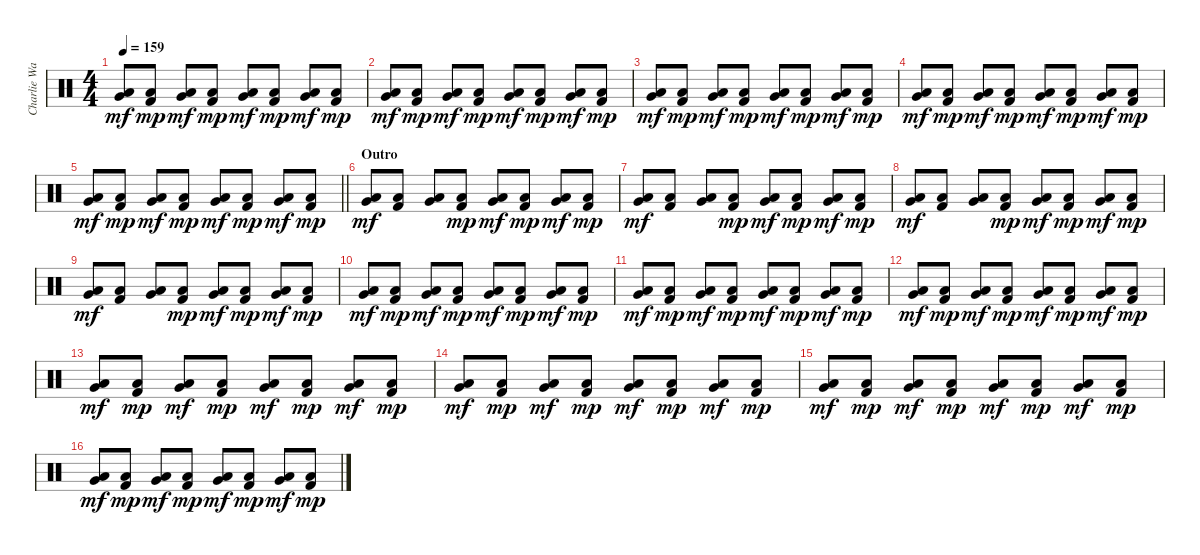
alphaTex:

\track ("Charlie Watts (Drums)" "Charlie Wa") {instrument percussion}
\staff {score}
\articulation defaults
\ts (4 4)
\tempo 159
\clef neutral
\ks c
("Very Low Tom (hit)" "Low Floor Tom (hit)").8{dy mf} ("Low Floor Tom (hit)" "Kick (hit) 2").8{dy mp} ("Very Low Tom (hit)" "Low Floor Tom (hit)").8{dy mf} ("Low Floor Tom (hit)" "Kick (hit) 2").8{dy mp} ("Very Low Tom (hit)" "Low Floor Tom (hit)").8{dy mf} ("Low Floor Tom (hit)" "Kick (hit) 2").8{dy mp} ("Very Low Tom (hit)" "Low Floor Tom (hit)").8{dy mf} ("Low Floor Tom (hit)" "Kick (hit) 2").8{dy mp} |
("Very Low Tom (hit)" "Low Floor Tom (hit)").8{dy mf} ("Low Floor Tom (hit)" "Kick (hit) 2").8{dy mp} ("Very Low Tom (hit)" "Low Floor Tom (hit)").8{dy mf} ("Low Floor Tom (hit)" "Kick (hit) 2").8{dy mp} ("Very Low Tom (hit)" "Low Floor Tom (hit)").8{dy mf} ("Low Floor Tom (hit)" "Kick (hit) 2").8{dy mp} ("Very Low Tom (hit)" "Low Floor Tom (hit)").8{dy mf} ("Low Floor Tom (hit)" "Kick (hit) 2").8{dy mp} |
("Very Low Tom (hit)" "Low Floor Tom (hit)").8{dy mf} ("Low Floor Tom (hit)" "Kick (hit) 2").8{dy mp} ("Very Low Tom (hit)" "Low Floor Tom (hit)").8{dy mf} ("Low Floor Tom (hit)" "Kick (hit) 2").8{dy mp} ("Very Low Tom (hit)" "Low Floor Tom (hit)").8{dy mf} ("Low Floor Tom (hit)" "Kick (hit) 2").8{dy mp} ("Very Low Tom (hit)" "Low Floor Tom (hit)").8{dy mf} ("Low Floor Tom (hit)" "Kick (hit) 2").8{dy mp} |
("Very Low Tom (hit)" "Low Floor Tom (hit)").8{dy mf} ("Low Floor Tom (hit)" "Kick (hit) 2").8{dy mp} ("Very Low Tom (hit)" "Low Floor Tom (hit)").8{dy mf} ("Low Floor Tom (hit)" "Kick (hit) 2").8{dy mp} ("Very Low Tom (hit)" "Low Floor Tom (hit)").8{dy mf} ("Low Floor Tom (hit)" "Kick (hit) 2").8{dy mp} ("Very Low Tom (hit)" "Low Floor Tom (hit)").8{dy mf} ("Low Floor Tom (hit)" "Kick (hit) 2").8{dy mp} |
\barLineRight lightlight
("Very Low Tom (hit)" "Low Floor Tom (hit)").8{dy mf} ("Low Floor Tom (hit)" "Kick (hit) 2").8{dy mp} ("Very Low Tom (hit)" "Low Floor Tom (hit)").8{dy mf} ("Low Floor Tom (hit)" "Kick (hit) 2").8{dy mp} ("Very Low Tom (hit)" "Low Floor Tom (hit)").8{dy mf} ("Low Floor Tom (hit)" "Kick (hit) 2").8{dy mp} ("Very Low Tom (hit)" "Low Floor Tom (hit)").8{dy mf} ("Low Floor Tom (hit)" "Kick (hit) 2").8{dy mp} |
\section ("" "Outro")
("Very Low Tom (hit)" "Low Floor Tom (hit)").8{dy mf} ("Low Floor Tom (hit)" "Kick (hit) 2").8 ("Very Low Tom (hit)" "Low Floor Tom (hit)").8 ("Low Floor Tom (hit)" "Kick (hit) 2").8{dy mp} ("Very Low Tom (hit)" "Low Floor Tom (hit)").8{dy mf} ("Low Floor Tom (hit)" "Kick (hit) 2").8{dy mp} ("Very Low Tom (hit)" "Low Floor Tom (hit)").8{dy mf} ("Low Floor Tom (hit)" "Kick (hit) 2").8{dy mp} |
("Very Low Tom (hit)" "Low Floor Tom (hit)").8{dy mf} ("Low Floor Tom (hit)" "Kick (hit) 2").8 ("Very Low Tom (hit)" "Low Floor Tom (hit)").8 ("Low Floor Tom (hit)" "Kick (hit) 2").8{dy mp} ("Very Low Tom (hit)" "Low Floor Tom (hit)").8{dy mf} ("Low Floor Tom (hit)" "Kick (hit) 2").8{dy mp} ("Very Low Tom (hit)" "Low Floor Tom (hit)").8{dy mf} ("Low Floor Tom (hit)" "Kick (hit) 2").8{dy mp} |
("Very Low Tom (hit)" "Low Floor Tom (hit)").8{dy mf} ("Low Floor Tom (hit)" "Kick (hit) 2").8 ("Very Low Tom (hit)" "Low Floor Tom (hit)").8 ("Low Floor Tom (hit)" "Kick (hit) 2").8{dy mp} ("Very Low Tom (hit)" "Low Floor Tom (hit)").8{dy mf} ("Low Floor Tom (hit)" "Kick (hit) 2").8{dy mp} ("Very Low Tom (hit)" "Low Floor Tom (hit)").8{dy mf} ("Low Floor Tom (hit)" "Kick (hit) 2").8{dy mp} |
("Very Low Tom (hit)" "Low Floor Tom (hit)").8{dy mf} ("Low Floor Tom (hit)" "Kick (hit) 2").8 ("Very Low Tom (hit)" "Low Floor Tom (hit)").8 ("Low Floor Tom (hit)" "Kick (hit) 2").8{dy mp} ("Very Low Tom (hit)" "Low Floor Tom (hit)").8{dy mf} ("Low Floor Tom (hit)" "Kick (hit) 2").8{dy mp} ("Very Low Tom (hit)" "Low Floor Tom (hit)").8{dy mf} ("Low Floor Tom (hit)" "Kick (hit) 2").8{dy mp} |
("Very Low Tom (hit)" "Low Floor Tom (hit)").8{dy mf} ("Low Floor Tom (hit)" "Kick (hit) 2").8{dy mp} ("Very Low Tom (hit)" "Low Floor Tom (hit)").8{dy mf} ("Low Floor Tom (hit)" "Kick (hit) 2").8{dy mp} ("Very Low Tom (hit)" "Low Floor Tom (hit)").8{dy mf} ("Low Floor Tom (hit)" "Kick (hit) 2").8{dy mp} ("Very Low Tom (hit)" "Low Floor Tom (hit)").8{dy mf} ("Low Floor Tom (hit)" "Kick (hit) 2").8{dy mp} |
("Very Low Tom (hit)" "Low Floor Tom (hit)").8{dy mf} ("Low Floor Tom (hit)" "Kick (hit) 2").8{dy mp} ("Very Low Tom (hit)" "Low Floor Tom (hit)").8{dy mf} ("Low Floor Tom (hit)" "Kick (hit) 2").8{dy mp} ("Very Low Tom (hit)" "Low Floor Tom (hit)").8{dy mf} ("Low Floor Tom (hit)" "Kick (hit) 2").8{dy mp} ("Very Low Tom (hit)" "Low Floor Tom (hit)").8{dy mf} ("Low Floor Tom (hit)" "Kick (hit) 2").8{dy mp} |
("Very Low Tom (hit)" "Low Floor Tom (hit)").8{dy mf} ("Low Floor Tom (hit)" "Kick (hit) 2").8{dy mp} ("Very Low Tom (hit)" "Low Floor Tom (hit)").8{dy mf} ("Low Floor Tom (hit)" "Kick (hit) 2").8{dy mp} ("Very Low Tom (hit)" "Low Floor Tom (hit)").8{dy mf} ("Low Floor Tom (hit)" "Kick (hit) 2").8{dy mp} ("Very Low Tom (hit)" "Low Floor Tom (hit)").8{dy mf} ("Low Floor Tom (hit)" "Kick (hit) 2").8{dy mp} |
("Very Low Tom (hit)" "Low Floor Tom (hit)").8{dy mf} ("Low Floor Tom (hit)" "Kick (hit) 2").8{dy mp} ("Very Low Tom (hit)" "Low Floor Tom (hit)").8{dy mf} ("Low Floor Tom (hit)" "Kick (hit) 2").8{dy mp} ("Very Low Tom (hit)" "Low Floor Tom (hit)").8{dy mf} ("Low Floor Tom (hit)" "Kick (hit) 2").8{dy mp} ("Very Low Tom (hit)" "Low Floor Tom (hit)").8{dy mf} ("Low Floor Tom (hit)" "Kick (hit) 2").8{dy mp} |
("Very Low Tom (hit)" "Low Floor Tom (hit)").8{dy mf} ("Low Floor Tom (hit)" "Kick (hit) 2").8{dy mp} ("Very Low Tom (hit)" "Low Floor Tom (hit)").8{dy mf} ("Low Floor Tom (hit)" "Kick (hit) 2").8{dy mp} ("Very Low Tom (hit)" "Low Floor Tom (hit)").8{dy mf} ("Low Floor Tom (hit)" "Kick (hit) 2").8{dy mp} ("Very Low Tom (hit)" "Low Floor Tom (hit)").8{dy mf} ("Low Floor Tom (hit)" "Kick (hit) 2").8{dy mp} |
("Very Low Tom (hit)" "Low Floor Tom (hit)").8{dy mf} ("Low Floor Tom (hit)" "Kick (hit) 2").8{dy mp} ("Very Low Tom (hit)" "Low Floor Tom (hit)").8{dy mf} ("Low Floor Tom (hit)" "Kick (hit) 2").8{dy mp} ("Very Low Tom (hit)" "Low Floor Tom (hit)").8{dy mf} ("Low Floor Tom (hit)" "Kick (hit) 2").8{dy mp} ("Very Low Tom (hit)" "Low Floor Tom (hit)").8{dy mf} ("Low Floor Tom (hit)" "Kick (hit) 2").8{dy mp} |
("Very Low Tom (hit)" "Low Floor Tom (hit)").8{dy mf} ("Low Floor Tom (hit)" "Kick (hit) 2").8{dy mp} ("Very Low Tom (hit)" "Low Floor Tom (hit)").8{dy mf} ("Low Floor Tom (hit)" "Kick (hit) 2").8{dy mp} ("Very Low Tom (hit)" "Low Floor Tom (hit)").8{dy mf} ("Low Floor Tom (hit)" "Kick (hit) 2").8{dy mp} ("Very Low Tom (hit)" "Low Floor Tom (hit)").8{dy mf} ("Low Floor Tom (hit)" "Kick (hit) 2").8{dy mp}
